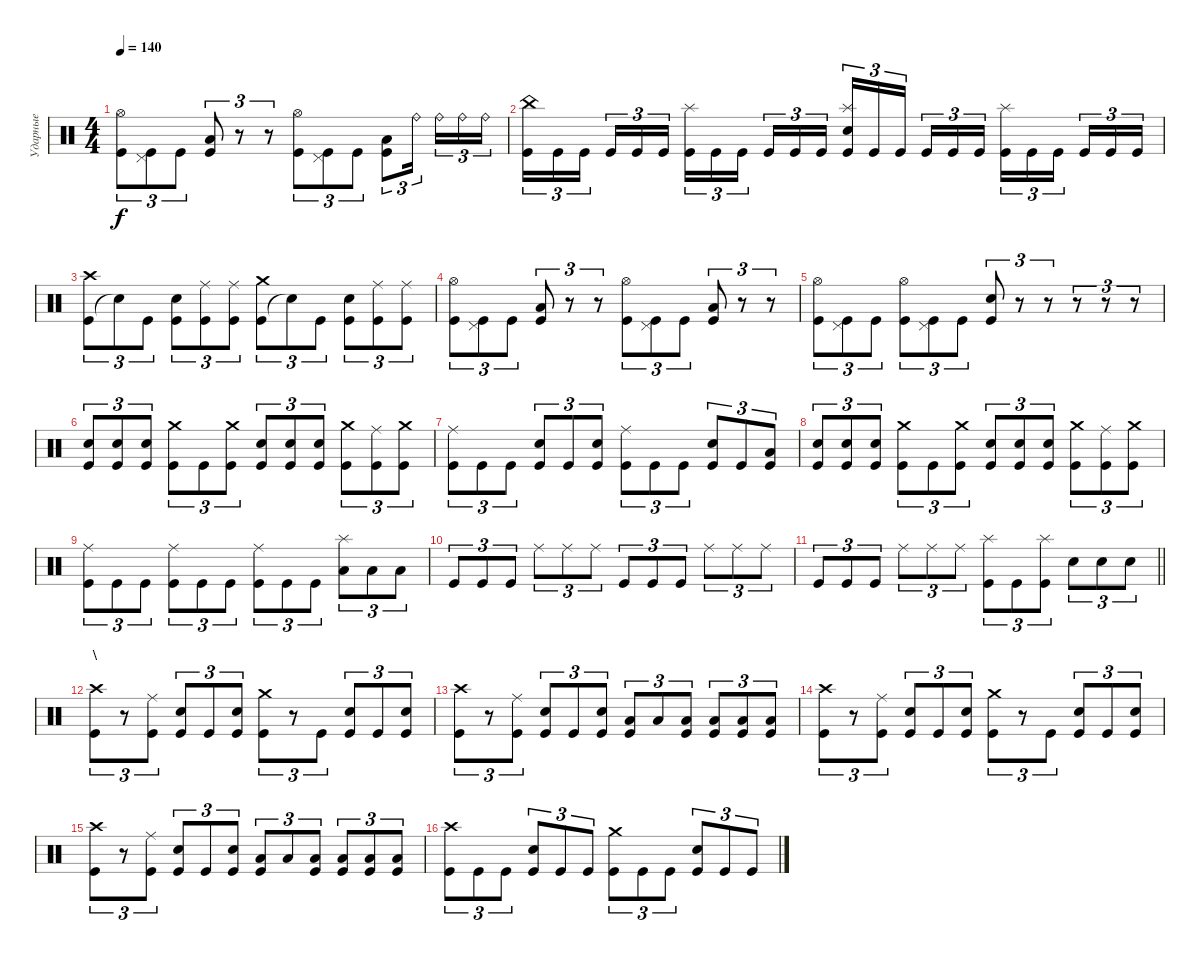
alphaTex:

\track ("Ударные" "Ударные") {instrument percussion}
\staff {score}
\articulation defaults
\ts (4 4)
\tempo 140
\clef neutral
\ks c
("Hi-Hat (open)" "Kick (hit)").8{tu (3 2) dy f} ("Pedal Hi-Hat (hit)" "Kick (hit)").8{tu (3 2)} "Kick (hit)".8{tu (3 2)} ("Low Floor Tom (hit)" "Kick (hit)").8{tu (3 2)} r.8{tu (3 2)} r.8{tu (3 2)} ("Hi-Hat (open)" "Kick (hit)").8{tu (3 2)} ("Pedal Hi-Hat (hit)" "Kick (hit)").8{tu (3 2)} "Kick (hit)".8{tu (3 2)} ("Low Floor Tom (hit)" "Kick (hit)").8{tu (3 2)} "Ride (bell)".16{tu (3 2) beam splitsecondary} "Ride (bell)".16{tu (3 2)} "Ride (bell)".16{tu (3 2)} "Ride (bell)".16{tu (3 2)} |
("Kick (hit)" "China (hit)").16{tu (3 2)} "Kick (hit)".16{tu (3 2)} "Kick (hit)".16{tu (3 2) beam splitsecondary} "Kick (hit)".16{tu (3 2)} "Kick (hit)".16{tu (3 2)} "Kick (hit)".16{tu (3 2)} ("Kick (hit)" "Splash (hit)").16{tu (3 2)} "Kick (hit)".16{tu (3 2)} "Kick (hit)".16{tu (3 2) beam splitsecondary} "Kick (hit)".16{tu (3 2)} "Kick (hit)".16{tu (3 2)} "Kick (hit)".16{tu (3 2)} ("Kick (hit)" "Electric Snare (hit)" "Splash (hit)").16{tu (3 2)} "Kick (hit)".16{tu (3 2)} "Kick (hit)".16{tu (3 2) beam splitsecondary} "Kick (hit)".16{tu (3 2)} "Kick (hit)".16{tu (3 2)} "Kick (hit)".16{tu (3 2)} ("Kick (hit)" "Splash (hit)").16{tu (3 2)} "Kick (hit)".16{tu (3 2)} "Kick (hit)".16{tu (3 2) beam splitsecondary} "Kick (hit)".16{tu (3 2)} "Kick (hit)".16{tu (3 2)} "Kick (hit)".16{tu (3 2)} |
("Kick (hit)" "Crash high (hit)").8{tu (3 2)} "Snare (hit)"{t}.8{tu (3 2)} "Kick (hit)".8{tu (3 2)} ("Kick (hit)" "Electric Snare (hit)").8{tu (3 2)} ("Kick (hit)" "Ride (middle)").8{tu (3 2)} ("Kick (hit)" "Ride (middle)").8{tu (3 2)} ("Kick (hit)" "Crash medium (hit)").8{tu (3 2)} "Snare (hit)"{t}.8{tu (3 2)} "Kick (hit)".8{tu (3 2)} ("Kick (hit)" "Electric Snare (hit)").8{tu (3 2)} ("Kick (hit)" "Ride (middle)").8{tu (3 2)} ("Kick (hit)" "Ride (middle)").8{tu (3 2)} |
("Hi-Hat (open)" "Kick (hit)").8{tu (3 2)} ("Pedal Hi-Hat (hit)" "Kick (hit)").8{tu (3 2)} "Kick (hit)".8{tu (3 2)} ("Low Floor Tom (hit)" "Kick (hit)").8{tu (3 2)} r.8{tu (3 2)} r.8{tu (3 2)} ("Hi-Hat (open)" "Kick (hit)").8{tu (3 2)} ("Pedal Hi-Hat (hit)" "Kick (hit)").8{tu (3 2)} "Kick (hit)".8{tu (3 2)} ("Low Floor Tom (hit)" "Kick (hit)").8{tu (3 2)} r.8{tu (3 2)} r.8{tu (3 2)} |
("Hi-Hat (open)" "Kick (hit)").8{tu (3 2)} ("Pedal Hi-Hat (hit)" "Kick (hit)").8{tu (3 2)} "Kick (hit)".8{tu (3 2)} ("Hi-Hat (open)" "Kick (hit)").8{tu (3 2)} ("Pedal Hi-Hat (hit)" "Kick (hit)").8{tu (3 2)} "Kick (hit)".8{tu (3 2)} ("Electric Snare (hit)" "Kick (hit)").8{tu (3 2)} r.8{tu (3 2)} r.8{tu (3 2)} r.8{tu (3 2)} r.8{tu (3 2)} r.8{tu (3 2)} |
("Electric Snare (hit)" "Kick (hit)").8{tu (3 2)} ("Electric Snare (hit)" "Kick (hit)").8{tu (3 2)} ("Electric Snare (hit)" "Kick (hit)").8{tu (3 2)} ("Crash medium (hit)" "Kick (hit)").8{tu (3 2)} "Kick (hit)".8{tu (3 2)} ("Crash medium (hit)" "Kick (hit)").8{tu (3 2)} ("Electric Snare (hit)" "Kick (hit)").8{tu (3 2)} ("Electric Snare (hit)" "Kick (hit)").8{tu (3 2)} ("Electric Snare (hit)" "Kick (hit)").8{tu (3 2)} ("Crash medium (hit)" "Kick (hit)").8{tu (3 2)} ("Ride (middle)" "Kick (hit)").8{tu (3 2)} ("Crash medium (hit)" "Kick (hit)").8{tu (3 2)} |
("Ride (middle)" "Kick (hit)").8{tu (3 2)} "Kick (hit)".8{tu (3 2)} "Kick (hit)".8{tu (3 2)} ("Electric Snare (hit)" "Kick (hit)").8{tu (3 2)} "Kick (hit)".8{tu (3 2)} ("Electric Snare (hit)" "Kick (hit)").8{tu (3 2)} ("Ride (middle)" "Kick (hit)").8{tu (3 2)} "Kick (hit)".8{tu (3 2)} "Kick (hit)".8{tu (3 2)} ("Electric Snare (hit)" "Kick (hit)").8{tu (3 2)} "Kick (hit)".8{tu (3 2)} ("Low Tom (hit)" "Kick (hit)").8{tu (3 2)} |
("Electric Snare (hit)" "Kick (hit)").8{tu (3 2)} ("Electric Snare (hit)" "Kick (hit)").8{tu (3 2)} ("Electric Snare (hit)" "Kick (hit)").8{tu (3 2)} ("Crash medium (hit)" "Kick (hit)").8{tu (3 2)} "Kick (hit)".8{tu (3 2)} ("Crash medium (hit)" "Kick (hit)").8{tu (3 2)} ("Electric Snare (hit)" "Kick (hit)").8{tu (3 2)} ("Electric Snare (hit)" "Kick (hit)").8{tu (3 2)} ("Electric Snare (hit)" "Kick (hit)").8{tu (3 2)} ("Crash medium (hit)" "Kick (hit)").8{tu (3 2)} ("Ride (middle)" "Kick (hit)").8{tu (3 2)} ("Crash medium (hit)" "Kick (hit)").8{tu (3 2)} |
("Ride (middle)" "Kick (hit)").8{tu (3 2)} "Kick (hit)".8{tu (3 2)} "Kick (hit)".8{tu (3 2)} ("Ride (middle)" "Kick (hit)").8{tu (3 2)} "Kick (hit)".8{tu (3 2)} "Kick (hit)".8{tu (3 2)} ("Ride (middle)" "Kick (hit)").8{tu (3 2)} "Kick (hit)".8{tu (3 2)} "Kick (hit)".8{tu (3 2)} ("Low Floor Tom (hit)" "Splash (hit)").8{tu (3 2)} "Low Floor Tom (hit)".8{tu (3 2)} "Low Floor Tom (hit)".8{tu (3 2)} |
"Kick (hit)".8{tu (3 2)} "Kick (hit)".8{tu (3 2)} "Kick (hit)".8{tu (3 2)} "Ride (middle)".8{tu (3 2)} "Ride (middle)".8{tu (3 2)} "Ride (middle)".8{tu (3 2)} "Kick (hit)".8{tu (3 2)} "Kick (hit)".8{tu (3 2)} "Kick (hit)".8{tu (3 2)} "Ride (middle)".8{tu (3 2)} "Ride (middle)".8{tu (3 2)} "Ride (middle)".8{tu (3 2)} |
\barLineRight lightlight "Kick (hit)".8{tu (3 2)} "Kick (hit)".8{tu (3 2)} "Kick (hit)".8{tu (3 2)} "Ride (middle)".8{tu (3 2)} "Ride (middle)".8{tu (3 2)} "Ride (middle)".8{tu (3 2)}
("Splash (hit)" "Kick (hit)").8{tu (3 2)} "Kick (hit)".8{tu (3 2)} ("Splash (hit)" "Kick (hit)").8{tu (3 2)} "Electric Snare (hit)".8{tu (3 2)} "Electric Snare (hit)".8{tu (3 2)} "Electric Snare (hit)".8{tu (3 2)} |
\section ("" " \\")
("Kick (hit)" "Crash high (hit)").8{tu (3 2)} r.8{tu (3 2)} ("Kick (hit)" "Ride (middle)").8{tu (3 2)} ("Kick (hit)" "Electric Snare (hit)").8{tu (3 2)} "Kick (hit)".8{tu (3 2)} ("Kick (hit)" "Electric Snare (hit)").8{tu (3 2)} ("Kick (hit)" "Crash medium (hit)").8{tu (3 2)} r.8{tu (3 2)} "Kick (hit)".8{tu (3 2)} ("Kick (hit)" "Electric Snare (hit)").8{tu (3 2)} "Kick (hit)".8{tu (3 2)} ("Kick (hit)" "Electric Snare (hit)").8{tu (3 2)} |
("Kick (hit)" "Crash high (hit)").8{tu (3 2)} r.8{tu (3 2)} ("Kick (hit)" "Ride (middle)").8{tu (3 2)} ("Kick (hit)" "Electric Snare (hit)").8{tu (3 2)} "Kick (hit)".8{tu (3 2)} ("Kick (hit)" "Electric Snare (hit)").8{tu (3 2)} ("Kick (hit)" "Low Tom (hit)").8{tu (3 2)} "Low Tom (hit)".8{tu (3 2)} ("Kick (hit)" "Low Tom (hit)").8{tu (3 2)} ("Kick (hit)" "Low Floor Tom (hit)").8{tu (3 2)} ("Kick (hit)" "Low Floor Tom (hit)").8{tu (3 2)} ("Kick (hit)" "Low Floor Tom (hit)").8{tu (3 2)} |
("Kick (hit)" "Crash high (hit)").8{tu (3 2)} r.8{tu (3 2)} ("Kick (hit)" "Ride (middle)").8{tu (3 2)} ("Kick (hit)" "Electric Snare (hit)").8{tu (3 2)} "Kick (hit)".8{tu (3 2)} ("Kick (hit)" "Electric Snare (hit)").8{tu (3 2)} ("Kick (hit)" "Crash medium (hit)").8{tu (3 2)} r.8{tu (3 2)} "Kick (hit)".8{tu (3 2)} ("Kick (hit)" "Electric Snare (hit)").8{tu (3 2)} "Kick (hit)".8{tu (3 2)} ("Kick (hit)" "Electric Snare (hit)").8{tu (3 2)} |
("Kick (hit)" "Crash high (hit)").8{tu (3 2)} r.8{tu (3 2)} ("Kick (hit)" "Ride (middle)").8{tu (3 2)} ("Kick (hit)" "Electric Snare (hit)").8{tu (3 2)} "Kick (hit)".8{tu (3 2)} ("Kick (hit)" "Electric Snare (hit)").8{tu (3 2)} ("Kick (hit)" "Low Tom (hit)").8{tu (3 2)} "Low Tom (hit)".8{tu (3 2)} ("Kick (hit)" "Low Tom (hit)").8{tu (3 2)} ("Kick (hit)" "Low Floor Tom (hit)").8{tu (3 2)} ("Kick (hit)" "Low Floor Tom (hit)").8{tu (3 2)} ("Kick (hit)" "Low Floor Tom (hit)").8{tu (3 2)} |
("Kick (hit)" "Crash high (hit)").8{tu (3 2)} "Kick (hit)".8{tu (3 2)} "Kick (hit)".8{tu (3 2)} ("Kick (hit)" "Electric Snare (hit)").8{tu (3 2)} "Kick (hit)".8{tu (3 2)} "Kick (hit)".8{tu (3 2)} ("Kick (hit)" "Crash medium (hit)").8{tu (3 2)} "Kick (hit)".8{tu (3 2)} "Kick (hit)".8{tu (3 2)} ("Kick (hit)" "Electric Snare (hit)").8{tu (3 2)} "Kick (hit)".8{tu (3 2)} "Kick (hit)".8{tu (3 2)}
